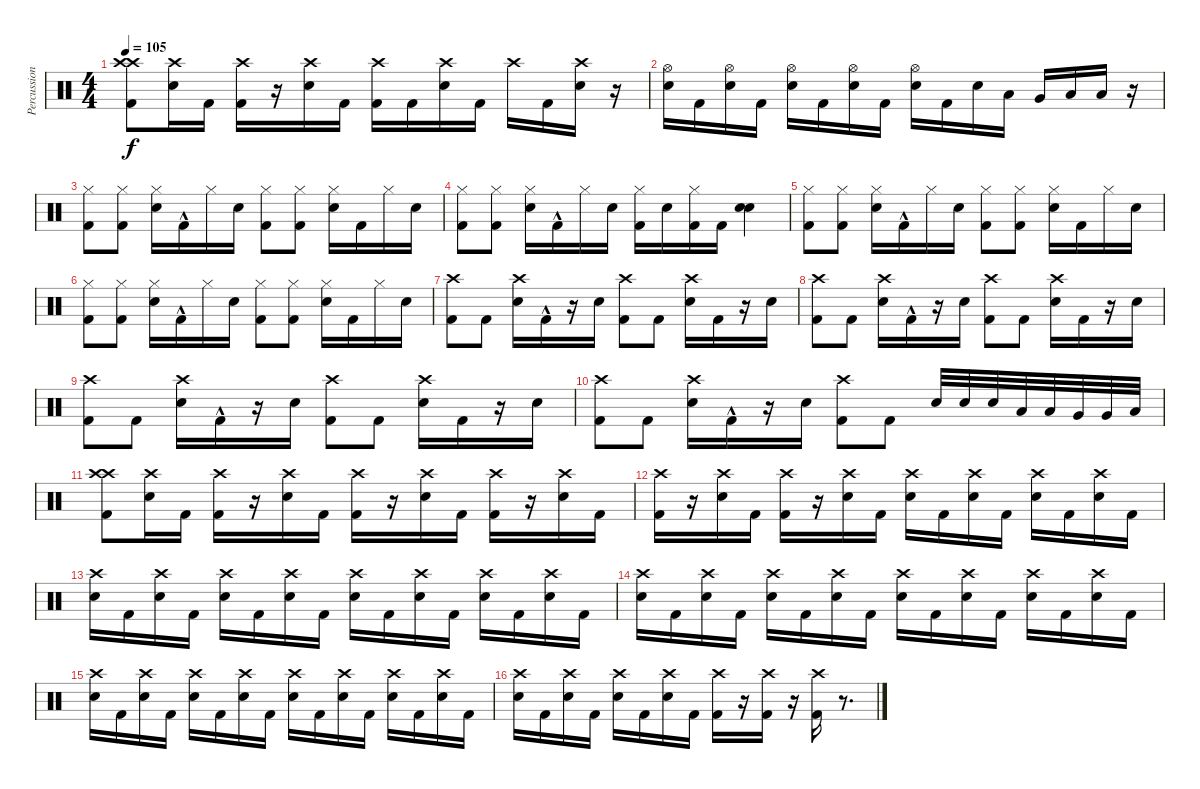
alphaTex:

\track ("Percussion" "Percussion") {instrument percussion}
\staff {score}
\articulation defaults
\ts (4 4)
\tempo 105
\clef neutral
\ks c
("Crash high (hit)" "Crash high (hit)" "Kick (hit) 2").8{dy f} ("Crash high (hit)" "Snare (hit) 2").16 "Kick (hit) 2".16 ("Crash high (hit)" "Kick (hit) 2").16 r.16 ("Crash high (hit)" "Snare (hit) 2").16 "Kick (hit) 2".16 ("Crash high (hit)" "Kick (hit) 2").16 "Kick (hit) 2".16 ("Crash high (hit)" "Snare (hit) 2").16 "Kick (hit) 2".16 "Crash high (hit)".16 "Kick (hit) 2".16 ("Crash high (hit)" "Snare (hit) 2").16 r.16 |
("Hi-Hat (open)" "Snare (hit) 2").16 "Kick (hit) 2".16 ("Hi-Hat (open)" "Snare (hit) 2").16 "Kick (hit) 2".16 ("Hi-Hat (open)" "Snare (hit) 2").16 "Kick (hit) 2".16 ("Hi-Hat (open)" "Snare (hit) 2").16 "Kick (hit) 2".16 ("Hi-Hat (open)" "Snare (hit) 2").16 "Kick (hit) 2".16 "Snare (hit) 2".16 "Low Tom (hit)".16 "Very Low Tom (hit)".16 "Low Floor Tom (hit)".16 "Low Floor Tom (hit)".16 r.16 |
("Hi-Hat (closed)" "Kick (hit) 2").8 ("Hi-Hat (closed)" "Kick (hit) 2").8 ("Hi-Hat (closed)" "Snare (hit) 2").16 "Kick (hit) 2"{hac}.16 "Hi-Hat (closed)".16 "Snare (hit) 2".16 ("Hi-Hat (closed)" "Kick (hit) 2").8 ("Hi-Hat (closed)" "Kick (hit) 2").8 ("Hi-Hat (closed)" "Snare (hit) 2").16 "Kick (hit) 2".16 "Hi-Hat (closed)".16 "Snare (hit) 2".16 |
("Hi-Hat (closed)" "Kick (hit) 2").8 ("Hi-Hat (closed)" "Kick (hit) 2").8 ("Hi-Hat (closed)" "Snare (hit) 2").16 "Kick (hit) 2"{hac}.16 "Hi-Hat (closed)".16 "Snare (hit) 2".16 ("Hi-Hat (closed)" "Kick (hit) 2").16 "Snare (hit) 2".16 ("Hi-Hat (closed)" "Kick (hit) 2").16 "Kick (hit) 2".16 ("Snare (hit) 2" "Snare (hit) 2").4 |
("Hi-Hat (closed)" "Kick (hit) 2").8 ("Hi-Hat (closed)" "Kick (hit) 2").8 ("Hi-Hat (closed)" "Snare (hit) 2").16 "Kick (hit) 2"{hac}.16 "Hi-Hat (closed)".16 "Snare (hit) 2".16 ("Hi-Hat (closed)" "Kick (hit) 2").8 ("Hi-Hat (closed)" "Kick (hit) 2").8 ("Hi-Hat (closed)" "Snare (hit) 2").16 "Kick (hit) 2".16 "Hi-Hat (closed)".16 "Snare (hit) 2".16 |
("Hi-Hat (closed)" "Kick (hit) 2").8 ("Hi-Hat (closed)" "Kick (hit) 2").8 ("Hi-Hat (closed)" "Snare (hit) 2").16 "Kick (hit) 2"{hac}.16 "Hi-Hat (closed)".16 "Snare (hit) 2".16 ("Hi-Hat (closed)" "Kick (hit) 2").8 ("Hi-Hat (closed)" "Kick (hit) 2").8 ("Hi-Hat (closed)" "Snare (hit) 2").16 "Kick (hit) 2".16 "Hi-Hat (closed)".16 "Snare (hit) 2".16 |
("Crash high (hit)" "Kick (hit) 2").8 "Kick (hit) 2".8 ("Crash high (hit)" "Snare (hit) 2").16 "Kick (hit) 2"{hac}.16 r.16 "Snare (hit) 2".16 ("Crash high (hit)" "Kick (hit) 2").8 "Kick (hit) 2".8 ("Crash high (hit)" "Snare (hit) 2").16 "Kick (hit) 2".16 r.16 "Snare (hit) 2".16 |
("Crash high (hit)" "Kick (hit) 2").8 "Kick (hit) 2".8 ("Crash high (hit)" "Snare (hit) 2").16 "Kick (hit) 2"{hac}.16 r.16 "Snare (hit) 2".16 ("Crash high (hit)" "Kick (hit) 2").8 "Kick (hit) 2".8 ("Crash high (hit)" "Snare (hit) 2").16 "Kick (hit) 2".16 r.16 "Snare (hit) 2".16 |
("Crash high (hit)" "Kick (hit) 2").8 "Kick (hit) 2".8 ("Crash high (hit)" "Snare (hit) 2").16 "Kick (hit) 2"{hac}.16 r.16 "Snare (hit) 2".16 ("Crash high (hit)" "Kick (hit) 2").8 "Kick (hit) 2".8 ("Crash high (hit)" "Snare (hit) 2").16 "Kick (hit) 2".16 r.16 "Snare (hit) 2".16 |
("Crash high (hit)" "Kick (hit) 2").8 "Kick (hit) 2".8 ("Crash high (hit)" "Snare (hit) 2").16 "Kick (hit) 2"{hac}.16 r.16 "Snare (hit) 2".16 ("Crash high (hit)" "Kick (hit) 2").8 "Kick (hit) 2".8 "Snare (hit) 2".32 "Snare (hit) 2".32 "Snare (hit) 2".32 "Low Tom (hit)".32 "Low Tom (hit)".32 "Very Low Tom (hit)".32 "Very Low Tom (hit)".32 "Low Floor Tom (hit)".32 |
("Crash high (hit)" "Crash high (hit)" "Kick (hit) 2").8 ("Crash high (hit)" "Snare (hit) 2").16 "Kick (hit) 2".16 ("Crash high (hit)" "Kick (hit) 2").16 r.16 ("Crash high (hit)" "Snare (hit) 2").16 "Kick (hit) 2".16 ("Crash high (hit)" "Kick (hit) 2").16 r.16 ("Crash high (hit)" "Snare (hit) 2").16 "Kick (hit) 2".16 ("Crash high (hit)" "Kick (hit) 2").16 r.16 ("Crash high (hit)" "Snare (hit) 2").16 "Kick (hit) 2".16 |
("Crash high (hit)" "Kick (hit) 2").16 r.16 ("Crash high (hit)" "Snare (hit) 2").16 "Kick (hit) 2".16 ("Crash high (hit)" "Kick (hit) 2").16 r.16 ("Crash high (hit)" "Snare (hit) 2").16 "Kick (hit) 2".16 ("Crash high (hit)" "Snare (hit) 2").16 "Kick (hit) 2".16 ("Crash high (hit)" "Snare (hit) 2").16 "Kick (hit) 2".16 ("Crash high (hit)" "Snare (hit) 2").16 "Kick (hit) 2".16 ("Crash high (hit)" "Snare (hit) 2").16 "Kick (hit) 2".16 |
("Crash high (hit)" "Snare (hit) 2").16 "Kick (hit) 2".16 ("Crash high (hit)" "Snare (hit) 2").16 "Kick (hit) 2".16 ("Crash high (hit)" "Snare (hit) 2").16 "Kick (hit) 2".16 ("Crash high (hit)" "Snare (hit) 2").16 "Kick (hit) 2".16 ("Crash high (hit)" "Snare (hit) 2").16 "Kick (hit) 2".16 ("Crash high (hit)" "Snare (hit) 2").16 "Kick (hit) 2".16 ("Crash high (hit)" "Snare (hit) 2").16 "Kick (hit) 2".16 ("Crash high (hit)" "Snare (hit) 2").16 "Kick (hit) 2".16 |
("Crash high (hit)" "Snare (hit) 2").16 "Kick (hit) 2".16 ("Crash high (hit)" "Snare (hit) 2").16 "Kick (hit) 2".16 ("Crash high (hit)" "Snare (hit) 2").16 "Kick (hit) 2".16 ("Crash high (hit)" "Snare (hit) 2").16 "Kick (hit) 2".16 ("Crash high (hit)" "Snare (hit) 2").16 "Kick (hit) 2".16 ("Crash high (hit)" "Snare (hit) 2").16 "Kick (hit) 2".16 ("Crash high (hit)" "Snare (hit) 2").16 "Kick (hit) 2".16 ("Crash high (hit)" "Snare (hit) 2").16 "Kick (hit) 2".16 |
("Crash high (hit)" "Snare (hit) 2").16 "Kick (hit) 2".16 ("Crash high (hit)" "Snare (hit) 2").16 "Kick (hit) 2".16 ("Crash high (hit)" "Snare (hit) 2").16 "Kick (hit) 2".16 ("Crash high (hit)" "Snare (hit) 2").16 "Kick (hit) 2".16 ("Crash high (hit)" "Snare (hit) 2").16 "Kick (hit) 2".16 ("Crash high (hit)" "Snare (hit) 2").16 "Kick (hit) 2".16 ("Crash high (hit)" "Snare (hit) 2").16 "Kick (hit) 2".16 ("Crash high (hit)" "Snare (hit) 2").16 "Kick (hit) 2".16 |
("Crash high (hit)" "Snare (hit) 2").16 "Kick (hit) 2".16 ("Crash high (hit)" "Snare (hit) 2").16 "Kick (hit) 2".16 ("Crash high (hit)" "Snare (hit) 2").16 "Kick (hit) 2".16 ("Crash high (hit)" "Snare (hit) 2").16 "Kick (hit) 2".16 ("Crash high (hit)" "Kick (hit) 2").16 r.16 ("Crash high (hit)" "Kick (hit) 2").16 r.16 ("Crash high (hit)" "Kick (hit) 2").16 r.8{d}
